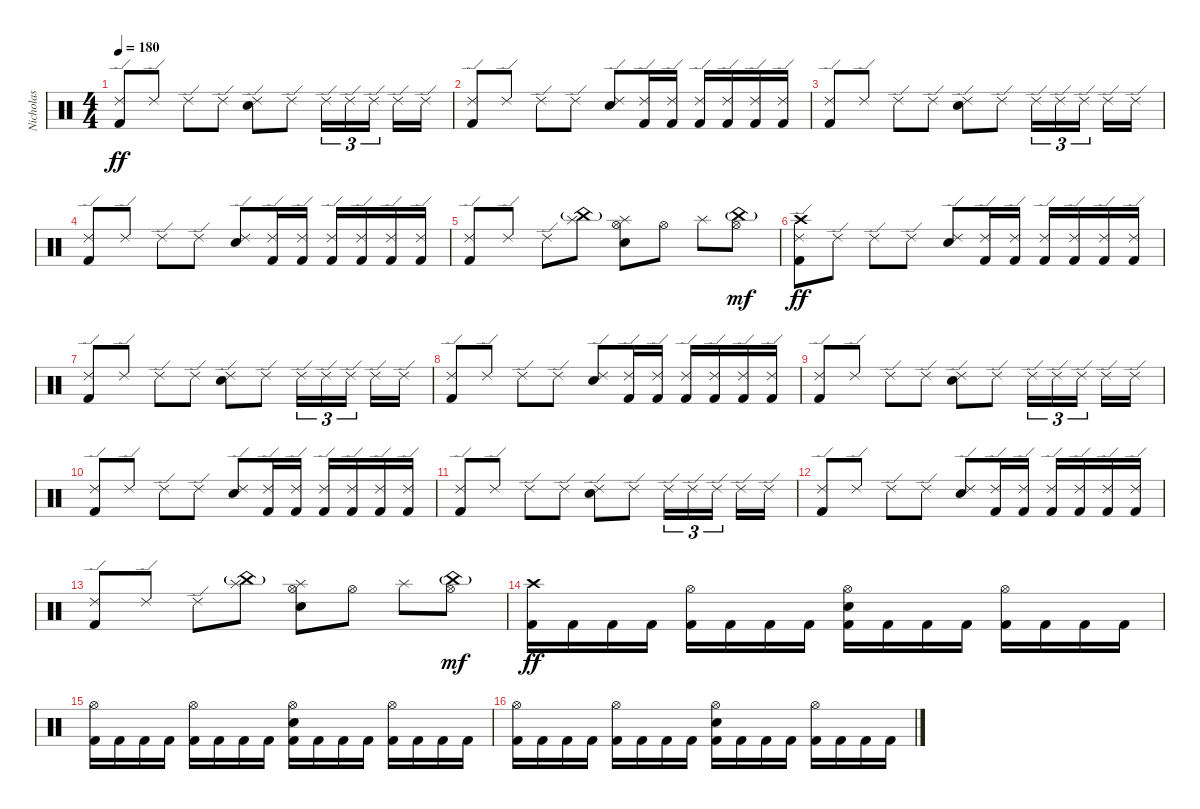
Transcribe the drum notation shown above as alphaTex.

\track ("Nicholas" "Nicholas") {instrument percussion}
\staff {score}
\articulation defaults
\ts (4 4)
\tempo 180
\clef neutral
\ks c
("Kick (hit) 2" "Ride (edge) 2").8{dy ff} "Ride (edge) 2".8 "Ride (edge) 2".8 "Ride (edge) 2".8 ("Electric Snare (hit)" "Ride (edge) 2").8 "Ride (edge) 2".8 "Ride (edge) 2".16{tu (3 2)} "Ride (edge) 2".16{tu (3 2)} "Ride (edge) 2".16{tu (3 2) beam splitsecondary} "Ride (edge) 2".16 "Ride (edge) 2".16 |
("Kick (hit) 2" "Ride (edge) 2").8 "Ride (edge) 2".8 "Ride (edge) 2".8 "Ride (edge) 2".8 ("Electric Snare (hit)" "Ride (edge) 2").8 ("Kick (hit) 2" "Ride (edge) 2").16 ("Kick (hit) 2" "Ride (edge) 2").16 ("Kick (hit) 2" "Ride (edge) 2").16 ("Kick (hit) 2" "Ride (edge) 2").16 ("Kick (hit) 2" "Ride (edge) 2").16 ("Kick (hit) 2" "Ride (edge) 2").16 |
("Kick (hit) 2" "Ride (edge) 2").8 "Ride (edge) 2".8 "Ride (edge) 2".8 "Ride (edge) 2".8 ("Electric Snare (hit)" "Ride (edge) 2").8 "Ride (edge) 2".8 "Ride (edge) 2".16{tu (3 2)} "Ride (edge) 2".16{tu (3 2)} "Ride (edge) 2".16{tu (3 2) beam splitsecondary} "Ride (edge) 2".16 "Ride (edge) 2".16 |
("Kick (hit) 2" "Ride (edge) 2").8 "Ride (edge) 2".8 "Ride (edge) 2".8 "Ride (edge) 2".8 ("Electric Snare (hit)" "Ride (edge) 2").8 ("Kick (hit) 2" "Ride (edge) 2").16 ("Kick (hit) 2" "Ride (edge) 2").16 ("Kick (hit) 2" "Ride (edge) 2").16 ("Kick (hit) 2" "Ride (edge) 2").16 ("Kick (hit) 2" "Ride (edge) 2").16 ("Kick (hit) 2" "Ride (edge) 2").16 |
("Kick (hit) 2" "Ride (edge) 2").8 "Ride (edge) 2".8 "Ride (edge) 2".8 ("China (hit)"{g} "Splash (hit)").8 ("Electric Snare (hit)" "Splash (hit)" "Hi-Hat (open)").8 "Hi-Hat (open)".8 "Splash (hit)".8 ("Hi-Hat (open)" "China (hit)"{g}).8{dy mf} |
("Kick (hit) 2" "Ride (edge) 2" "Crash high (hit)").8{dy ff} "Ride (edge) 2".8 "Ride (edge) 2".8 "Ride (edge) 2".8 ("Electric Snare (hit)" "Ride (edge) 2").8 ("Kick (hit) 2" "Ride (edge) 2").16 ("Kick (hit) 2" "Ride (edge) 2").16 ("Kick (hit) 2" "Ride (edge) 2").16 ("Kick (hit) 2" "Ride (edge) 2").16 ("Kick (hit) 2" "Ride (edge) 2").16 ("Kick (hit) 2" "Ride (edge) 2").16 |
("Kick (hit) 2" "Ride (edge) 2").8 "Ride (edge) 2".8 "Ride (edge) 2".8 "Ride (edge) 2".8 ("Electric Snare (hit)" "Ride (edge) 2").8 "Ride (edge) 2".8 "Ride (edge) 2".16{tu (3 2)} "Ride (edge) 2".16{tu (3 2)} "Ride (edge) 2".16{tu (3 2) beam splitsecondary} "Ride (edge) 2".16 "Ride (edge) 2".16 |
("Kick (hit) 2" "Ride (edge) 2").8 "Ride (edge) 2".8 "Ride (edge) 2".8 "Ride (edge) 2".8 ("Electric Snare (hit)" "Ride (edge) 2").8 ("Kick (hit) 2" "Ride (edge) 2").16 ("Kick (hit) 2" "Ride (edge) 2").16 ("Kick (hit) 2" "Ride (edge) 2").16 ("Kick (hit) 2" "Ride (edge) 2").16 ("Kick (hit) 2" "Ride (edge) 2").16 ("Kick (hit) 2" "Ride (edge) 2").16 |
("Kick (hit) 2" "Ride (edge) 2").8 "Ride (edge) 2".8 "Ride (edge) 2".8 "Ride (edge) 2".8 ("Electric Snare (hit)" "Ride (edge) 2").8 "Ride (edge) 2".8 "Ride (edge) 2".16{tu (3 2)} "Ride (edge) 2".16{tu (3 2)} "Ride (edge) 2".16{tu (3 2) beam splitsecondary} "Ride (edge) 2".16 "Ride (edge) 2".16 |
("Kick (hit) 2" "Ride (edge) 2").8 "Ride (edge) 2".8 "Ride (edge) 2".8 "Ride (edge) 2".8 ("Electric Snare (hit)" "Ride (edge) 2").8 ("Kick (hit) 2" "Ride (edge) 2").16 ("Kick (hit) 2" "Ride (edge) 2").16 ("Kick (hit) 2" "Ride (edge) 2").16 ("Kick (hit) 2" "Ride (edge) 2").16 ("Kick (hit) 2" "Ride (edge) 2").16 ("Kick (hit) 2" "Ride (edge) 2").16 |
("Kick (hit) 2" "Ride (edge) 2").8 "Ride (edge) 2".8 "Ride (edge) 2".8 "Ride (edge) 2".8 ("Electric Snare (hit)" "Ride (edge) 2").8 "Ride (edge) 2".8 "Ride (edge) 2".16{tu (3 2)} "Ride (edge) 2".16{tu (3 2)} "Ride (edge) 2".16{tu (3 2) beam splitsecondary} "Ride (edge) 2".16 "Ride (edge) 2".16 |
("Kick (hit) 2" "Ride (edge) 2").8 "Ride (edge) 2".8 "Ride (edge) 2".8 "Ride (edge) 2".8 ("Electric Snare (hit)" "Ride (edge) 2").8 ("Kick (hit) 2" "Ride (edge) 2").16 ("Kick (hit) 2" "Ride (edge) 2").16 ("Kick (hit) 2" "Ride (edge) 2").16 ("Kick (hit) 2" "Ride (edge) 2").16 ("Kick (hit) 2" "Ride (edge) 2").16 ("Kick (hit) 2" "Ride (edge) 2").16 |
("Kick (hit) 2" "Ride (edge) 2").8 "Ride (edge) 2".8 "Ride (edge) 2".8 ("China (hit)"{g} "Splash (hit)").8 ("Electric Snare (hit)" "Splash (hit)" "Hi-Hat (open)").8 "Hi-Hat (open)".8 "Splash (hit)".8 ("Hi-Hat (open)" "China (hit)"{g}).8{dy mf} |
("Kick (hit) 2" "Crash high (hit)").16{dy ff} "Kick (hit) 2".16 "Kick (hit) 2".16 "Kick (hit) 2".16 ("Kick (hit) 2" "Hi-Hat (open)").16 "Kick (hit) 2".16 "Kick (hit) 2".16 "Kick (hit) 2".16 ("Kick (hit) 2" "Electric Snare (hit)" "Hi-Hat (open)").16 "Kick (hit) 2".16 "Kick (hit) 2".16 "Kick (hit) 2".16 ("Kick (hit) 2" "Hi-Hat (open)").16 "Kick (hit) 2".16 "Kick (hit) 2".16 "Kick (hit) 2".16 |
("Kick (hit) 2" "Hi-Hat (open)").16 "Kick (hit) 2".16 "Kick (hit) 2".16 "Kick (hit) 2".16 ("Kick (hit) 2" "Hi-Hat (open)").16 "Kick (hit) 2".16 "Kick (hit) 2".16 "Kick (hit) 2".16 ("Kick (hit) 2" "Electric Snare (hit)" "Hi-Hat (open)").16 "Kick (hit) 2".16 "Kick (hit) 2".16 "Kick (hit) 2".16 ("Kick (hit) 2" "Hi-Hat (open)").16 "Kick (hit) 2".16 "Kick (hit) 2".16 "Kick (hit) 2".16 |
("Kick (hit) 2" "Hi-Hat (open)").16 "Kick (hit) 2".16 "Kick (hit) 2".16 "Kick (hit) 2".16 ("Kick (hit) 2" "Hi-Hat (open)").16 "Kick (hit) 2".16 "Kick (hit) 2".16 "Kick (hit) 2".16 ("Kick (hit) 2" "Electric Snare (hit)" "Hi-Hat (open)").16 "Kick (hit) 2".16 "Kick (hit) 2".16 "Kick (hit) 2".16 ("Kick (hit) 2" "Hi-Hat (open)").16 "Kick (hit) 2".16 "Kick (hit) 2".16 "Kick (hit) 2".16
